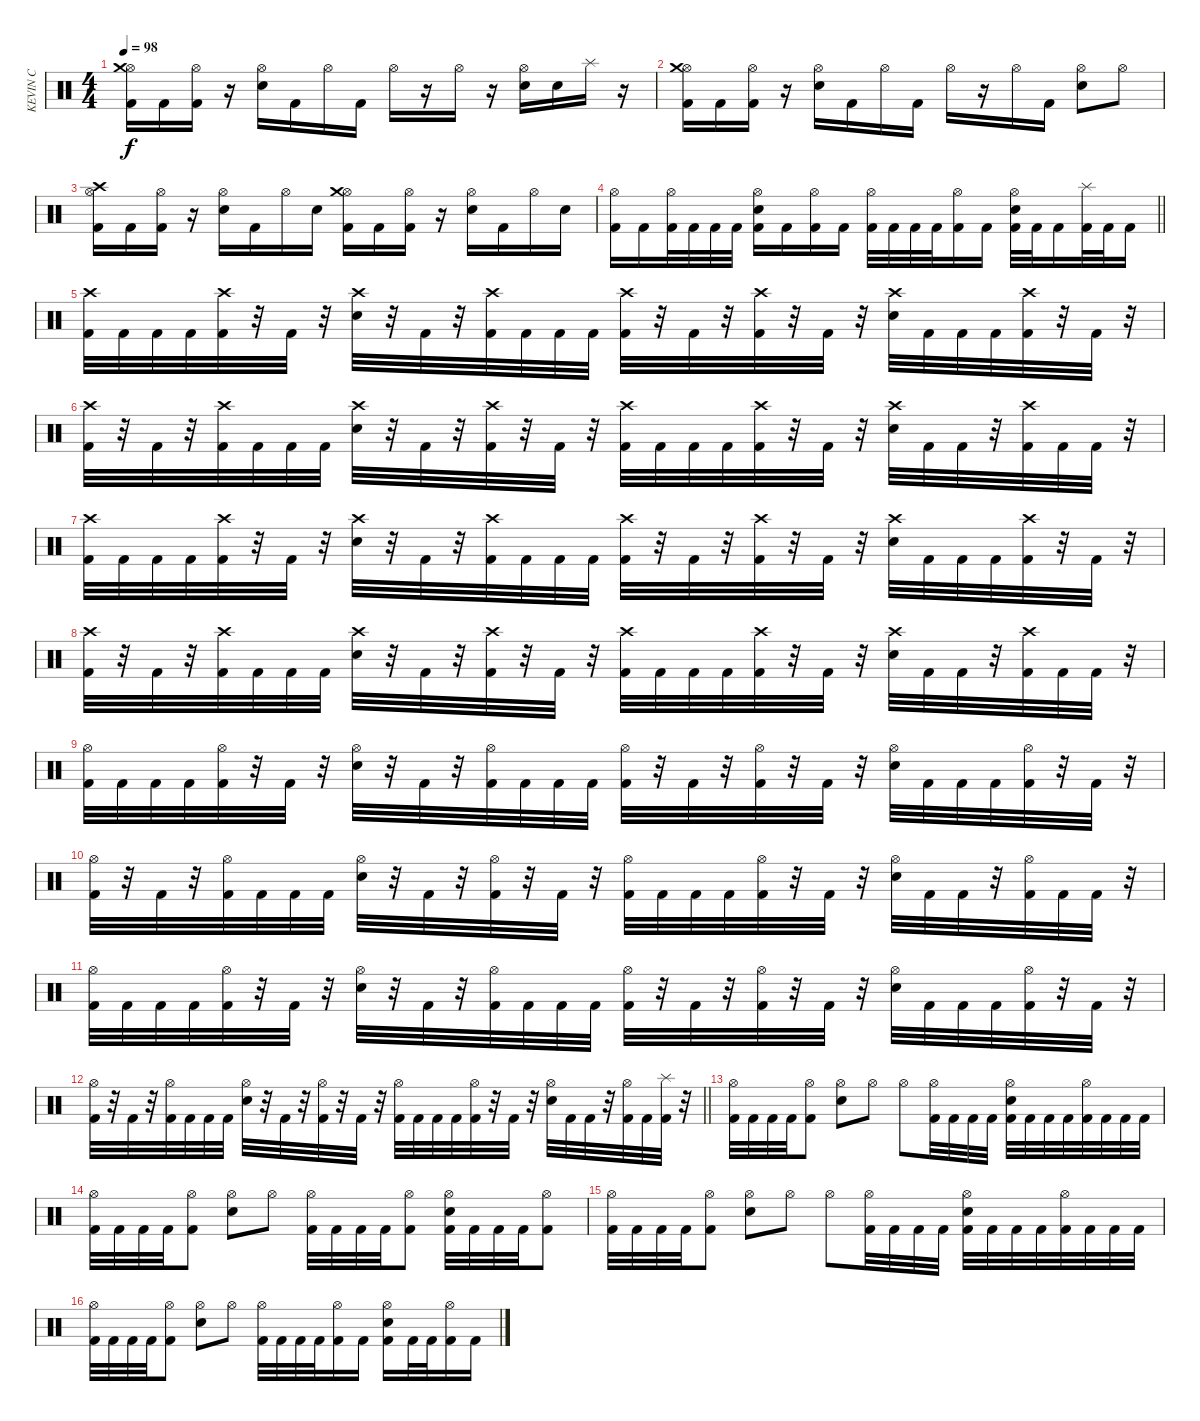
\track ("KEVIN C" "KEVIN C") {instrument percussion}
\staff {score}
\articulation defaults
\ts (4 4)
\tempo 98
\clef neutral
\ks c
("Hi-Hat (open)" "Crash medium (hit)" "Kick (hit) 2").16{dy f} "Kick (hit) 2".16 ("Hi-Hat (open)" "Kick (hit) 2").16 r.16 ("Hi-Hat (open)" "Snare (hit) 2").16 "Kick (hit) 2".16 "Hi-Hat (open)".16 "Kick (hit) 2".16 "Hi-Hat (open)".16 r.16 "Hi-Hat (open)".16 r.16 ("Hi-Hat (open)" "Snare (hit) 2").16 "Snare (hit) 2".16 "Splash (hit)".16 r.16 |
("Hi-Hat (open)" "Crash medium (hit)" "Kick (hit) 2").16 "Kick (hit) 2".16 ("Hi-Hat (open)" "Kick (hit) 2").16 r.16 ("Hi-Hat (open)" "Snare (hit) 2").16 "Kick (hit) 2".16 "Hi-Hat (open)".16 "Kick (hit) 2".16 "Hi-Hat (open)".16 r.16 "Hi-Hat (open)".16 "Kick (hit) 2".16 ("Hi-Hat (open)" "Snare (hit) 2").8 "Hi-Hat (open)".8 |
("Hi-Hat (open)" "Crash high (hit)" "Kick (hit) 2").16 "Kick (hit) 2".16 ("Hi-Hat (open)" "Kick (hit) 2").16 r.16 ("Hi-Hat (open)" "Snare (hit) 2").16 "Kick (hit) 2".16 "Hi-Hat (open)".16 "Snare (hit) 2".16 ("Hi-Hat (open)" "Crash medium (hit)" "Kick (hit) 2").16 "Kick (hit) 2".16 ("Hi-Hat (open)" "Kick (hit) 2").16 r.16 ("Hi-Hat (open)" "Snare (hit) 2").16 "Kick (hit) 2".16 "Hi-Hat (open)".16 "Snare (hit) 2".16 |
\barLineRight lightlight
("Hi-Hat (open)" "Kick (hit) 2").16 "Kick (hit) 2".16 ("Hi-Hat (open)" "Kick (hit) 2").32 "Kick (hit) 2".32 "Kick (hit) 2".32 "Kick (hit) 2".32 ("Hi-Hat (open)" "Snare (hit) 2" "Kick (hit) 2").16 "Kick (hit) 2".16 ("Hi-Hat (open)" "Kick (hit) 2").16 "Kick (hit) 2".16 ("Hi-Hat (open)" "Kick (hit) 2").32 "Kick (hit) 2".32 "Kick (hit) 2".32 "Kick (hit) 2".32 ("Hi-Hat (open)" "Kick (hit) 2").16 "Kick (hit) 2".16 ("Hi-Hat (open)" "Snare (hit) 2" "Kick (hit) 2").32 "Kick (hit) 2".32 "Kick (hit) 2".16 ("Splash (hit)" "Kick (hit) 2").32 "Kick (hit) 2".32 "Kick (hit) 2".16 |
("Crash high (hit)" "Kick (hit) 2").32 "Kick (hit) 2".32 "Kick (hit) 2".32 "Kick (hit) 2".32 ("Crash high (hit)" "Kick (hit) 2").32 r.32 "Kick (hit) 2".32 r.32 ("Crash high (hit)" "Snare (hit) 2").32 r.32 "Kick (hit) 2".32 r.32 ("Crash high (hit)" "Kick (hit) 2").32 "Kick (hit) 2".32 "Kick (hit) 2".32 "Kick (hit) 2".32 ("Crash high (hit)" "Kick (hit) 2").32 r.32 "Kick (hit) 2".32 r.32 ("Crash high (hit)" "Kick (hit) 2").32 r.32 "Kick (hit) 2".32 r.32 ("Crash high (hit)" "Snare (hit) 2").32 "Kick (hit) 2".32 "Kick (hit) 2".32 "Kick (hit) 2".32 ("Crash high (hit)" "Kick (hit) 2").32 r.32 "Kick (hit) 2".32 r.32 |
("Crash high (hit)" "Kick (hit) 2").32 r.32 "Kick (hit) 2".32 r.32 ("Crash high (hit)" "Kick (hit) 2").32 "Kick (hit) 2".32 "Kick (hit) 2".32 "Kick (hit) 2".32 ("Crash high (hit)" "Snare (hit) 2").32 r.32 "Kick (hit) 2".32 r.32 ("Crash high (hit)" "Kick (hit) 2").32 r.32 "Kick (hit) 2".32 r.32 ("Crash high (hit)" "Kick (hit) 2").32 "Kick (hit) 2".32 "Kick (hit) 2".32 "Kick (hit) 2".32 ("Crash high (hit)" "Kick (hit) 2").32 r.32 "Kick (hit) 2".32 r.32 ("Crash high (hit)" "Snare (hit) 2").32 "Kick (hit) 2".32 "Kick (hit) 2".32 r.32 ("Crash high (hit)" "Kick (hit) 2").32 "Kick (hit) 2".32 "Kick (hit) 2".32 r.32 |
("Crash high (hit)" "Kick (hit) 2").32 "Kick (hit) 2".32 "Kick (hit) 2".32 "Kick (hit) 2".32 ("Crash high (hit)" "Kick (hit) 2").32 r.32 "Kick (hit) 2".32 r.32 ("Crash high (hit)" "Snare (hit) 2").32 r.32 "Kick (hit) 2".32 r.32 ("Crash high (hit)" "Kick (hit) 2").32 "Kick (hit) 2".32 "Kick (hit) 2".32 "Kick (hit) 2".32 ("Crash high (hit)" "Kick (hit) 2").32 r.32 "Kick (hit) 2".32 r.32 ("Crash high (hit)" "Kick (hit) 2").32 r.32 "Kick (hit) 2".32 r.32 ("Crash high (hit)" "Snare (hit) 2").32 "Kick (hit) 2".32 "Kick (hit) 2".32 "Kick (hit) 2".32 ("Crash high (hit)" "Kick (hit) 2").32 r.32 "Kick (hit) 2".32 r.32 |
("Crash high (hit)" "Kick (hit) 2").32 r.32 "Kick (hit) 2".32 r.32 ("Crash high (hit)" "Kick (hit) 2").32 "Kick (hit) 2".32 "Kick (hit) 2".32 "Kick (hit) 2".32 ("Crash high (hit)" "Snare (hit) 2").32 r.32 "Kick (hit) 2".32 r.32 ("Crash high (hit)" "Kick (hit) 2").32 r.32 "Kick (hit) 2".32 r.32 ("Crash high (hit)" "Kick (hit) 2").32 "Kick (hit) 2".32 "Kick (hit) 2".32 "Kick (hit) 2".32 ("Crash high (hit)" "Kick (hit) 2").32 r.32 "Kick (hit) 2".32 r.32 ("Crash high (hit)" "Snare (hit) 2").32 "Kick (hit) 2".32 "Kick (hit) 2".32 r.32 ("Crash high (hit)" "Kick (hit) 2").32 "Kick (hit) 2".32 "Kick (hit) 2".32 r.32 |
("Hi-Hat (open)" "Kick (hit) 2").32 "Kick (hit) 2".32 "Kick (hit) 2".32 "Kick (hit) 2".32 ("Hi-Hat (open)" "Kick (hit) 2").32 r.32 "Kick (hit) 2".32 r.32 ("Hi-Hat (open)" "Snare (hit) 2").32 r.32 "Kick (hit) 2".32 r.32 ("Hi-Hat (open)" "Kick (hit) 2").32 "Kick (hit) 2".32 "Kick (hit) 2".32 "Kick (hit) 2".32 ("Hi-Hat (open)" "Kick (hit) 2").32 r.32 "Kick (hit) 2".32 r.32 ("Hi-Hat (open)" "Kick (hit) 2").32 r.32 "Kick (hit) 2".32 r.32 ("Hi-Hat (open)" "Snare (hit) 2").32 "Kick (hit) 2".32 "Kick (hit) 2".32 "Kick (hit) 2".32 ("Hi-Hat (open)" "Kick (hit) 2").32 r.32 "Kick (hit) 2".32 r.32 |
("Hi-Hat (open)" "Kick (hit) 2").32 r.32 "Kick (hit) 2".32 r.32 ("Hi-Hat (open)" "Kick (hit) 2").32 "Kick (hit) 2".32 "Kick (hit) 2".32 "Kick (hit) 2".32 ("Hi-Hat (open)" "Snare (hit) 2").32 r.32 "Kick (hit) 2".32 r.32 ("Hi-Hat (open)" "Kick (hit) 2").32 r.32 "Kick (hit) 2".32 r.32 ("Hi-Hat (open)" "Kick (hit) 2").32 "Kick (hit) 2".32 "Kick (hit) 2".32 "Kick (hit) 2".32 ("Hi-Hat (open)" "Kick (hit) 2").32 r.32 "Kick (hit) 2".32 r.32 ("Hi-Hat (open)" "Snare (hit) 2").32 "Kick (hit) 2".32 "Kick (hit) 2".32 r.32 ("Hi-Hat (open)" "Kick (hit) 2").32 "Kick (hit) 2".32 "Kick (hit) 2".32 r.32 |
("Hi-Hat (open)" "Kick (hit) 2").32 "Kick (hit) 2".32 "Kick (hit) 2".32 "Kick (hit) 2".32 ("Hi-Hat (open)" "Kick (hit) 2").32 r.32 "Kick (hit) 2".32 r.32 ("Hi-Hat (open)" "Snare (hit) 2").32 r.32 "Kick (hit) 2".32 r.32 ("Hi-Hat (open)" "Kick (hit) 2").32 "Kick (hit) 2".32 "Kick (hit) 2".32 "Kick (hit) 2".32 ("Hi-Hat (open)" "Kick (hit) 2").32 r.32 "Kick (hit) 2".32 r.32 ("Hi-Hat (open)" "Kick (hit) 2").32 r.32 "Kick (hit) 2".32 r.32 ("Hi-Hat (open)" "Snare (hit) 2").32 "Kick (hit) 2".32 "Kick (hit) 2".32 "Kick (hit) 2".32 ("Hi-Hat (open)" "Kick (hit) 2").32 r.32 "Kick (hit) 2".32 r.32 |
\barLineRight lightlight
("Hi-Hat (open)" "Kick (hit) 2").32 r.32 "Kick (hit) 2".32 r.32 ("Hi-Hat (open)" "Kick (hit) 2").32 "Kick (hit) 2".32 "Kick (hit) 2".32 "Kick (hit) 2".32 ("Hi-Hat (open)" "Snare (hit) 2").32 r.32 "Kick (hit) 2".32 r.32 ("Hi-Hat (open)" "Kick (hit) 2").32 r.32 "Kick (hit) 2".32 r.32 ("Hi-Hat (open)" "Kick (hit) 2").32 "Kick (hit) 2".32 "Kick (hit) 2".32 "Kick (hit) 2".32 ("Hi-Hat (open)" "Kick (hit) 2").32 r.32 "Kick (hit) 2".32 r.32 ("Hi-Hat (open)" "Snare (hit) 2").32 "Kick (hit) 2".32 "Kick (hit) 2".32 r.32 ("Hi-Hat (open)" "Kick (hit) 2").32 "Kick (hit) 2".32 ("Splash (hit)" "Kick (hit) 2").32 r.32 |
("Hi-Hat (open)" "Kick (hit) 2").32 "Kick (hit) 2".32 "Kick (hit) 2".32 "Kick (hit) 2".32 ("Hi-Hat (open)" "Kick (hit) 2").8 ("Hi-Hat (open)" "Snare (hit) 2").8 "Hi-Hat (open)".8 "Hi-Hat (open)".8 ("Hi-Hat (open)" "Kick (hit) 2").32 "Kick (hit) 2".32 "Kick (hit) 2".32 "Kick (hit) 2".32 ("Hi-Hat (open)" "Snare (hit) 2" "Kick (hit) 2").32 "Kick (hit) 2".32 "Kick (hit) 2".32 "Kick (hit) 2".32 ("Hi-Hat (open)" "Kick (hit) 2").32 "Kick (hit) 2".32 "Kick (hit) 2".32 "Kick (hit) 2".32 |
("Hi-Hat (open)" "Kick (hit) 2").32 "Kick (hit) 2".32 "Kick (hit) 2".32 "Kick (hit) 2".32 ("Hi-Hat (open)" "Kick (hit) 2").8 ("Hi-Hat (open)" "Snare (hit) 2").8 "Hi-Hat (open)".8 ("Hi-Hat (open)" "Kick (hit) 2").32 "Kick (hit) 2".32 "Kick (hit) 2".32 "Kick (hit) 2".32 ("Hi-Hat (open)" "Kick (hit) 2").8 ("Hi-Hat (open)" "Snare (hit) 2" "Kick (hit) 2").32 "Kick (hit) 2".32 "Kick (hit) 2".32 "Kick (hit) 2".32 ("Hi-Hat (open)" "Kick (hit) 2").8 |
("Hi-Hat (open)" "Kick (hit) 2").32 "Kick (hit) 2".32 "Kick (hit) 2".32 "Kick (hit) 2".32 ("Hi-Hat (open)" "Kick (hit) 2").8 ("Hi-Hat (open)" "Snare (hit) 2").8 "Hi-Hat (open)".8 "Hi-Hat (open)".8 ("Hi-Hat (open)" "Kick (hit) 2").32 "Kick (hit) 2".32 "Kick (hit) 2".32 "Kick (hit) 2".32 ("Hi-Hat (open)" "Snare (hit) 2" "Kick (hit) 2").32 "Kick (hit) 2".32 "Kick (hit) 2".32 "Kick (hit) 2".32 ("Hi-Hat (open)" "Kick (hit) 2").32 "Kick (hit) 2".32 "Kick (hit) 2".32 "Kick (hit) 2".32 |
("Hi-Hat (open)" "Kick (hit) 2").32 "Kick (hit) 2".32 "Kick (hit) 2".32 "Kick (hit) 2".32 ("Hi-Hat (open)" "Kick (hit) 2").8 ("Hi-Hat (open)" "Snare (hit) 2").8 "Hi-Hat (open)".8 ("Hi-Hat (open)" "Kick (hit) 2").32 "Kick (hit) 2".32 "Kick (hit) 2".32 "Kick (hit) 2".32 ("Hi-Hat (open)" "Kick (hit) 2").16 "Kick (hit) 2".16 ("Hi-Hat (open)" "Snare (hit) 2" "Kick (hit) 2").16 "Kick (hit) 2".32 "Kick (hit) 2".32 ("Hi-Hat (open)" "Kick (hit) 2").16 "Kick (hit) 2".16
